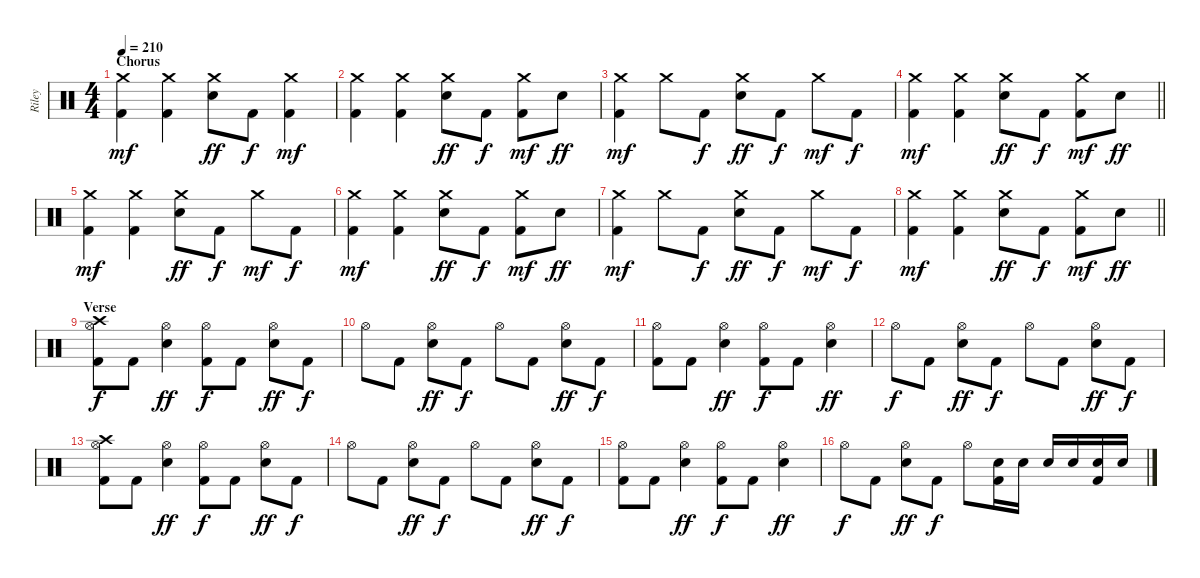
\track ("Riley" "Riley") {instrument percussion}
\staff {score}
\articulation defaults
\ts (4 4)
\section ("" "Chorus")
\tempo 210
\clef neutral
\ks c
("Crash medium (hit)" "Kick (hit) 2").4{dy mf} ("Crash medium (hit)" "Kick (hit) 2").4 ("Crash medium (hit)" "Electric Snare (hit)").8{dy ff} "Kick (hit) 2".8{dy f} ("Crash medium (hit)" "Kick (hit) 2").4{dy mf} |
("Crash medium (hit)" "Kick (hit) 2").4 ("Crash medium (hit)" "Kick (hit) 2").4 ("Crash medium (hit)" "Electric Snare (hit)").8{dy ff} "Kick (hit) 2".8{dy f} ("Crash medium (hit)" "Kick (hit) 2").8{dy mf} "Electric Snare (hit)".8{dy ff} |
("Crash medium (hit)" "Kick (hit) 2").4{dy mf} "Crash medium (hit)".8 "Kick (hit) 2".8{dy f} ("Crash medium (hit)" "Electric Snare (hit)").8{dy ff} "Kick (hit) 2".8{dy f} "Crash medium (hit)".8{dy mf} "Kick (hit) 2".8{dy f} |
\barLineRight lightlight
("Crash medium (hit)" "Kick (hit) 2").4{dy mf} ("Crash medium (hit)" "Kick (hit) 2").4 ("Crash medium (hit)" "Electric Snare (hit)").8{dy ff} "Kick (hit) 2".8{dy f} ("Crash medium (hit)" "Kick (hit) 2").8{dy mf} "Electric Snare (hit)".8{dy ff} |
("Crash medium (hit)" "Kick (hit) 2").4{dy mf} ("Crash medium (hit)" "Kick (hit) 2").4 ("Crash medium (hit)" "Electric Snare (hit)").8{dy ff} "Kick (hit) 2".8{dy f} "Crash medium (hit)".8{dy mf} "Kick (hit) 2".8{dy f} |
("Crash medium (hit)" "Kick (hit) 2").4{dy mf} ("Crash medium (hit)" "Kick (hit) 2").4 ("Crash medium (hit)" "Electric Snare (hit)").8{dy ff} "Kick (hit) 2".8{dy f} ("Crash medium (hit)" "Kick (hit) 2").8{dy mf} "Electric Snare (hit)".8{dy ff} |
("Crash medium (hit)" "Kick (hit) 2").4{dy mf} "Crash medium (hit)".8 "Kick (hit) 2".8{dy f} ("Crash medium (hit)" "Electric Snare (hit)").8{dy ff} "Kick (hit) 2".8{dy f} "Crash medium (hit)".8{dy mf} "Kick (hit) 2".8{dy f} |
\barLineRight lightlight
("Crash medium (hit)" "Kick (hit) 2").4{dy mf} ("Crash medium (hit)" "Kick (hit) 2").4 ("Crash medium (hit)" "Electric Snare (hit)").8{dy ff} "Kick (hit) 2".8{dy f} ("Crash medium (hit)" "Kick (hit) 2").8{dy mf} "Electric Snare (hit)".8{dy ff} |
\section ("" "Verse")
("Crash high (hit)" "Hi-Hat (open)" "Kick (hit) 2").8{dy f} "Kick (hit) 2".8 ("Hi-Hat (open)" "Electric Snare (hit)").4{dy ff} ("Hi-Hat (open)" "Kick (hit) 2").8{dy f} "Kick (hit) 2".8 ("Hi-Hat (open)" "Electric Snare (hit)").8{dy ff} "Kick (hit) 2".8{dy f} |
"Hi-Hat (open)".8 "Kick (hit) 2".8 ("Hi-Hat (open)" "Electric Snare (hit)").8{dy ff} "Kick (hit) 2".8{dy f} "Hi-Hat (open)".8 "Kick (hit) 2".8 ("Hi-Hat (open)" "Electric Snare (hit)").8{dy ff} "Kick (hit) 2".8{dy f} |
("Hi-Hat (open)" "Kick (hit) 2").8 "Kick (hit) 2".8 ("Hi-Hat (open)" "Electric Snare (hit)").4{dy ff} ("Hi-Hat (open)" "Kick (hit) 2").8{dy f} "Kick (hit) 2".8 ("Hi-Hat (open)" "Electric Snare (hit)").4{dy ff} |
"Hi-Hat (open)".8{dy f} "Kick (hit) 2".8 ("Hi-Hat (open)" "Electric Snare (hit)").8{dy ff} "Kick (hit) 2".8{dy f} "Hi-Hat (open)".8 "Kick (hit) 2".8 ("Hi-Hat (open)" "Electric Snare (hit)").8{dy ff} "Kick (hit) 2".8{dy f} |
("Crash high (hit)" "Hi-Hat (open)" "Kick (hit) 2").8 "Kick (hit) 2".8 ("Hi-Hat (open)" "Electric Snare (hit)").4{dy ff} ("Hi-Hat (open)" "Kick (hit) 2").8{dy f} "Kick (hit) 2".8 ("Hi-Hat (open)" "Electric Snare (hit)").8{dy ff} "Kick (hit) 2".8{dy f} |
"Hi-Hat (open)".8 "Kick (hit) 2".8 ("Hi-Hat (open)" "Electric Snare (hit)").8{dy ff} "Kick (hit) 2".8{dy f} "Hi-Hat (open)".8 "Kick (hit) 2".8 ("Hi-Hat (open)" "Electric Snare (hit)").8{dy ff} "Kick (hit) 2".8{dy f} |
("Hi-Hat (open)" "Kick (hit) 2").8 "Kick (hit) 2".8 ("Hi-Hat (open)" "Electric Snare (hit)").4{dy ff} ("Hi-Hat (open)" "Kick (hit) 2").8{dy f} "Kick (hit) 2".8 ("Hi-Hat (open)" "Electric Snare (hit)").4{dy ff} |
"Hi-Hat (open)".8{dy f} "Kick (hit) 2".8 ("Hi-Hat (open)" "Electric Snare (hit)").8{dy ff} "Kick (hit) 2".8{dy f} "Hi-Hat (open)".8 ("Electric Snare (hit)" "Kick (hit) 2").16 "Electric Snare (hit)".16 "Electric Snare (hit)".16 "Electric Snare (hit)".16 ("Electric Snare (hit)" "Kick (hit) 2").16 "Electric Snare (hit)".16
